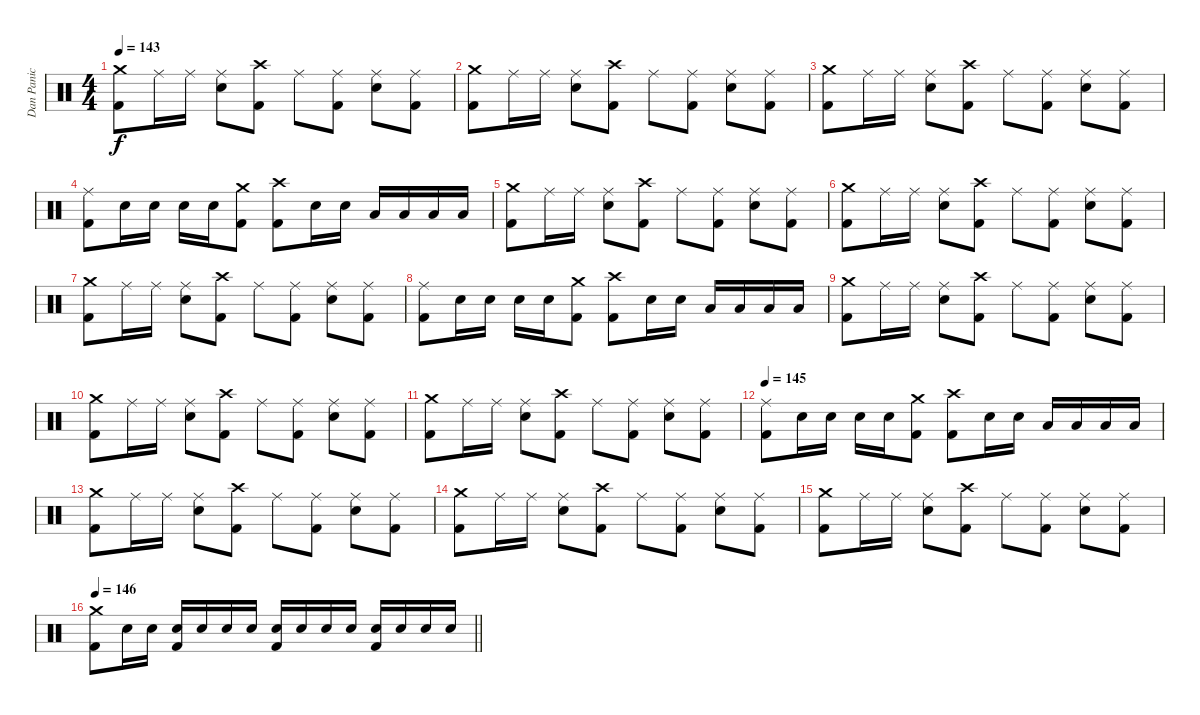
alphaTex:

\track ("Dan Panic" "Dan Panic") {instrument percussion}
\staff {score}
\articulation defaults
\ts (4 4)
\section ("" "")
\tempo 143
\clef neutral
\ks c
("Crash medium (hit)" "Kick (hit) 2").8{dy f} "Ride (middle)".16 "Ride (middle)".16 ("Ride (middle)" "Electric Snare (hit)").8 ("Crash high (hit)" "Kick (hit) 2").8 "Ride (middle)".8 ("Ride (middle)" "Kick (hit) 2").8 ("Ride (middle)" "Electric Snare (hit)").8 ("Ride (middle)" "Kick (hit) 2").8 |
("Crash medium (hit)" "Kick (hit) 2").8 "Ride (middle)".16 "Ride (middle)".16 ("Ride (middle)" "Electric Snare (hit)").8 ("Crash high (hit)" "Kick (hit) 2").8 "Ride (middle)".8 ("Ride (middle)" "Kick (hit) 2").8 ("Ride (middle)" "Electric Snare (hit)").8 ("Ride (middle)" "Kick (hit) 2").8 |
("Crash medium (hit)" "Kick (hit) 2").8 "Ride (middle)".16 "Ride (middle)".16 ("Ride (middle)" "Electric Snare (hit)").8 ("Crash high (hit)" "Kick (hit) 2").8 "Ride (middle)".8 ("Ride (middle)" "Kick (hit) 2").8 ("Ride (middle)" "Electric Snare (hit)").8 ("Ride (middle)" "Kick (hit) 2").8 |
("Ride (middle)" "Kick (hit) 2").8 "Electric Snare (hit)".16 "Electric Snare (hit)".16 "Electric Snare (hit)".16 "Electric Snare (hit)".16 ("Crash medium (hit)" "Kick (hit) 2").8 ("Crash high (hit)" "Kick (hit) 2").8 "Electric Snare (hit)".16 "Electric Snare (hit)".16 "Low Tom (hit)".16 "Low Tom (hit)".16 "Low Floor Tom (hit)".16 "Low Floor Tom (hit)".16 |
("Crash medium (hit)" "Kick (hit) 2").8 "Ride (middle)".16 "Ride (middle)".16 ("Ride (middle)" "Electric Snare (hit)").8 ("Crash high (hit)" "Kick (hit) 2").8 "Ride (middle)".8 ("Ride (middle)" "Kick (hit) 2").8 ("Ride (middle)" "Electric Snare (hit)").8 ("Ride (middle)" "Kick (hit) 2").8 |
("Crash medium (hit)" "Kick (hit) 2").8 "Ride (middle)".16 "Ride (middle)".16 ("Ride (middle)" "Electric Snare (hit)").8 ("Crash high (hit)" "Kick (hit) 2").8 "Ride (middle)".8 ("Ride (middle)" "Kick (hit) 2").8 ("Ride (middle)" "Electric Snare (hit)").8 ("Ride (middle)" "Kick (hit) 2").8 |
("Crash medium (hit)" "Kick (hit) 2").8 "Ride (middle)".16 "Ride (middle)".16 ("Ride (middle)" "Electric Snare (hit)").8 ("Crash high (hit)" "Kick (hit) 2").8 "Ride (middle)".8 ("Ride (middle)" "Kick (hit) 2").8 ("Ride (middle)" "Electric Snare (hit)").8 ("Ride (middle)" "Kick (hit) 2").8 |
("Ride (middle)" "Kick (hit) 2").8 "Electric Snare (hit)".16 "Electric Snare (hit)".16 "Electric Snare (hit)".16 "Electric Snare (hit)".16 ("Crash medium (hit)" "Kick (hit) 2").8 ("Crash high (hit)" "Kick (hit) 2").8 "Electric Snare (hit)".16 "Electric Snare (hit)".16 "Low Tom (hit)".16 "Low Tom (hit)".16 "Low Floor Tom (hit)".16 "Low Floor Tom (hit)".16 |
("Crash medium (hit)" "Kick (hit) 2").8 "Ride (middle)".16 "Ride (middle)".16 ("Ride (middle)" "Electric Snare (hit)").8 ("Crash high (hit)" "Kick (hit) 2").8 "Ride (middle)".8 ("Ride (middle)" "Kick (hit) 2").8 ("Ride (middle)" "Electric Snare (hit)").8 ("Ride (middle)" "Kick (hit) 2").8 |
("Crash medium (hit)" "Kick (hit) 2").8 "Ride (middle)".16 "Ride (middle)".16 ("Ride (middle)" "Electric Snare (hit)").8 ("Crash high (hit)" "Kick (hit) 2").8 "Ride (middle)".8 ("Ride (middle)" "Kick (hit) 2").8 ("Ride (middle)" "Electric Snare (hit)").8 ("Ride (middle)" "Kick (hit) 2").8 |
("Crash medium (hit)" "Kick (hit) 2").8 "Ride (middle)".16 "Ride (middle)".16 ("Ride (middle)" "Electric Snare (hit)").8 ("Crash high (hit)" "Kick (hit) 2").8 "Ride (middle)".8 ("Ride (middle)" "Kick (hit) 2").8 ("Ride (middle)" "Electric Snare (hit)").8 ("Ride (middle)" "Kick (hit) 2").8 |
\tempo 145
("Ride (middle)" "Kick (hit) 2").8 "Electric Snare (hit)".16 "Electric Snare (hit)".16 "Electric Snare (hit)".16 "Electric Snare (hit)".16 ("Crash medium (hit)" "Kick (hit) 2").8 ("Crash high (hit)" "Kick (hit) 2").8 "Electric Snare (hit)".16 "Electric Snare (hit)".16 "Low Tom (hit)".16 "Low Tom (hit)".16 "Low Floor Tom (hit)".16 "Low Floor Tom (hit)".16 |
("Crash medium (hit)" "Kick (hit) 2").8 "Ride (middle)".16 "Ride (middle)".16 ("Ride (middle)" "Electric Snare (hit)").8 ("Crash high (hit)" "Kick (hit) 2").8 "Ride (middle)".8 ("Ride (middle)" "Kick (hit) 2").8 ("Ride (middle)" "Electric Snare (hit)").8 ("Ride (middle)" "Kick (hit) 2").8 |
("Crash medium (hit)" "Kick (hit) 2").8 "Ride (middle)".16 "Ride (middle)".16 ("Ride (middle)" "Electric Snare (hit)").8 ("Crash high (hit)" "Kick (hit) 2").8 "Ride (middle)".8 ("Ride (middle)" "Kick (hit) 2").8 ("Ride (middle)" "Electric Snare (hit)").8 ("Ride (middle)" "Kick (hit) 2").8 |
("Crash medium (hit)" "Kick (hit) 2").8 "Ride (middle)".16 "Ride (middle)".16 ("Ride (middle)" "Electric Snare (hit)").8 ("Crash high (hit)" "Kick (hit) 2").8 "Ride (middle)".8 ("Ride (middle)" "Kick (hit) 2").8 ("Ride (middle)" "Electric Snare (hit)").8 ("Ride (middle)" "Kick (hit) 2").8 |
\tempo 146
\barLineRight lightlight
("Crash medium (hit)" "Kick (hit) 2").8 "Electric Snare (hit)".16 "Electric Snare (hit)".16 ("Electric Snare (hit)" "Kick (hit) 2").16 "Electric Snare (hit)".16 "Electric Snare (hit)".16 "Electric Snare (hit)".16 ("Electric Snare (hit)" "Kick (hit) 2").16 "Electric Snare (hit)".16 "Electric Snare (hit)".16 "Electric Snare (hit)".16 ("Electric Snare (hit)" "Kick (hit) 2").16 "Electric Snare (hit)".16 "Electric Snare (hit)".16 "Electric Snare (hit)".16
